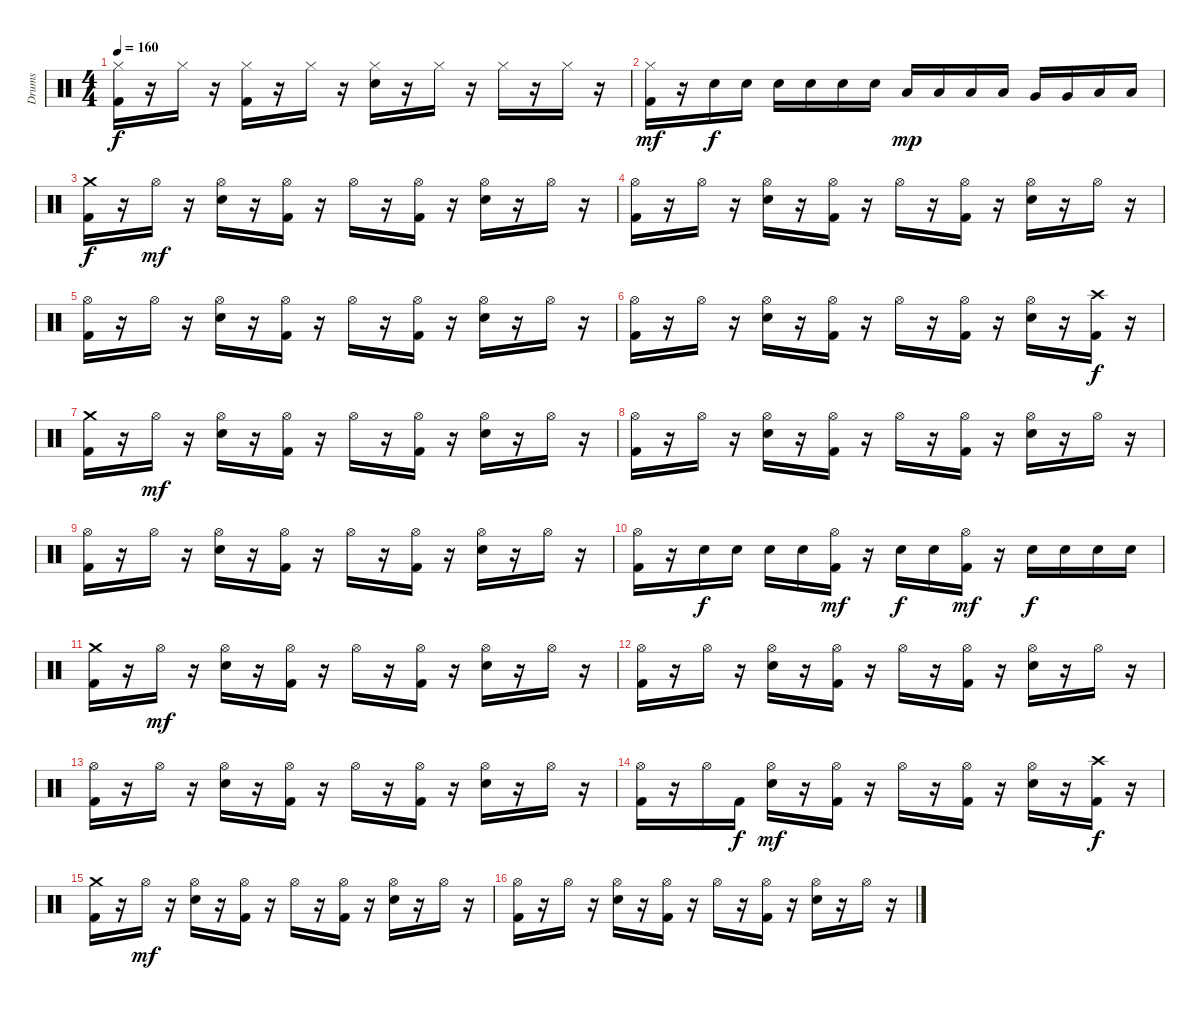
\track ("Drums" "Drums") {instrument percussion}
\staff {score}
\articulation defaults
\ts (4 4)
\tempo 160
\clef neutral
\ks c
("Hi-Hat (closed)" "Kick (hit) 2").16{dy f} r.16 "Hi-Hat (closed)".16 r.16 ("Hi-Hat (closed)" "Kick (hit) 2").16 r.16 "Hi-Hat (closed)".16 r.16 ("Hi-Hat (closed)" "Snare (hit) 2").16 r.16 "Hi-Hat (closed)".16 r.16 "Hi-Hat (closed)".16 r.16 "Hi-Hat (closed)".16 r.16 |
("Hi-Hat (closed)" "Kick (hit) 2").16{dy mf} r.16 "Snare (hit) 2".16{dy f} "Snare (hit) 2".16 "Snare (hit) 2".16 "Snare (hit) 2".16 "Snare (hit) 2".16 "Snare (hit) 2".16 "Low Tom (hit)".16{dy mp} "Low Tom (hit)".16 "Low Tom (hit)".16 "Low Tom (hit)".16 "Very Low Tom (hit)".16 "Very Low Tom (hit)".16 "Low Floor Tom (hit)".16 "Low Floor Tom (hit)".16 |
("Crash medium (hit)" "Kick (hit) 2").16{dy f} r.16 "Hi-Hat (open)".16{dy mf} r.16 ("Hi-Hat (open)" "Snare (hit) 2").16 r.16 ("Hi-Hat (open)" "Kick (hit) 2").16 r.16 "Hi-Hat (open)".16 r.16 ("Hi-Hat (open)" "Kick (hit) 2").16 r.16 ("Hi-Hat (open)" "Snare (hit) 2").16 r.16 "Hi-Hat (open)".16 r.16 |
("Hi-Hat (open)" "Kick (hit) 2").16 r.16 "Hi-Hat (open)".16 r.16 ("Hi-Hat (open)" "Snare (hit) 2").16 r.16 ("Hi-Hat (open)" "Kick (hit) 2").16 r.16 "Hi-Hat (open)".16 r.16 ("Hi-Hat (open)" "Kick (hit) 2").16 r.16 ("Hi-Hat (open)" "Snare (hit) 2").16 r.16 "Hi-Hat (open)".16 r.16 |
("Hi-Hat (open)" "Kick (hit) 2").16 r.16 "Hi-Hat (open)".16 r.16 ("Hi-Hat (open)" "Snare (hit) 2").16 r.16 ("Hi-Hat (open)" "Kick (hit) 2").16 r.16 "Hi-Hat (open)".16 r.16 ("Hi-Hat (open)" "Kick (hit) 2").16 r.16 ("Hi-Hat (open)" "Snare (hit) 2").16 r.16 "Hi-Hat (open)".16 r.16 |
("Hi-Hat (open)" "Kick (hit) 2").16 r.16 "Hi-Hat (open)".16 r.16 ("Hi-Hat (open)" "Snare (hit) 2").16 r.16 ("Hi-Hat (open)" "Kick (hit) 2").16 r.16 "Hi-Hat (open)".16 r.16 ("Hi-Hat (open)" "Kick (hit) 2").16 r.16 ("Hi-Hat (open)" "Snare (hit) 2").16 r.16 ("Crash high (hit)" "Kick (hit) 2").16{dy f} r.16 |
("Crash medium (hit)" "Kick (hit) 2").16 r.16 "Hi-Hat (open)".16{dy mf} r.16 ("Hi-Hat (open)" "Snare (hit) 2").16 r.16 ("Hi-Hat (open)" "Kick (hit) 2").16 r.16 "Hi-Hat (open)".16 r.16 ("Hi-Hat (open)" "Kick (hit) 2").16 r.16 ("Hi-Hat (open)" "Snare (hit) 2").16 r.16 "Hi-Hat (open)".16 r.16 |
("Hi-Hat (open)" "Kick (hit) 2").16 r.16 "Hi-Hat (open)".16 r.16 ("Hi-Hat (open)" "Snare (hit) 2").16 r.16 ("Hi-Hat (open)" "Kick (hit) 2").16 r.16 "Hi-Hat (open)".16 r.16 ("Hi-Hat (open)" "Kick (hit) 2").16 r.16 ("Hi-Hat (open)" "Snare (hit) 2").16 r.16 "Hi-Hat (open)".16 r.16 |
("Hi-Hat (open)" "Kick (hit) 2").16 r.16 "Hi-Hat (open)".16 r.16 ("Hi-Hat (open)" "Snare (hit) 2").16 r.16 ("Hi-Hat (open)" "Kick (hit) 2").16 r.16 "Hi-Hat (open)".16 r.16 ("Hi-Hat (open)" "Kick (hit) 2").16 r.16 ("Hi-Hat (open)" "Snare (hit) 2").16 r.16 "Hi-Hat (open)".16 r.16 |
("Hi-Hat (open)" "Kick (hit) 2").16 r.16 "Snare (hit) 2".16{dy f} "Snare (hit) 2".16 "Snare (hit) 2".16 "Snare (hit) 2".16 ("Hi-Hat (open)" "Kick (hit) 2").16{dy mf} r.16 "Snare (hit) 2".16{dy f} "Snare (hit) 2".16 ("Hi-Hat (open)" "Kick (hit) 2").16{dy mf} r.16 "Snare (hit) 2".16{dy f} "Snare (hit) 2".16 "Snare (hit) 2".16 "Snare (hit) 2".16 |
("Crash medium (hit)" "Kick (hit) 2").16 r.16 "Hi-Hat (open)".16{dy mf} r.16 ("Hi-Hat (open)" "Snare (hit) 2").16 r.16 ("Hi-Hat (open)" "Kick (hit) 2").16 r.16 "Hi-Hat (open)".16 r.16 ("Hi-Hat (open)" "Kick (hit) 2").16 r.16 ("Hi-Hat (open)" "Snare (hit) 2").16 r.16 "Hi-Hat (open)".16 r.16 |
("Hi-Hat (open)" "Kick (hit) 2").16 r.16 "Hi-Hat (open)".16 r.16 ("Hi-Hat (open)" "Snare (hit) 2").16 r.16 ("Hi-Hat (open)" "Kick (hit) 2").16 r.16 "Hi-Hat (open)".16 r.16 ("Hi-Hat (open)" "Kick (hit) 2").16 r.16 ("Hi-Hat (open)" "Snare (hit) 2").16 r.16 "Hi-Hat (open)".16 r.16 |
("Hi-Hat (open)" "Kick (hit) 2").16 r.16 "Hi-Hat (open)".16 r.16 ("Hi-Hat (open)" "Snare (hit) 2").16 r.16 ("Hi-Hat (open)" "Kick (hit) 2").16 r.16 "Hi-Hat (open)".16 r.16 ("Hi-Hat (open)" "Kick (hit) 2").16 r.16 ("Hi-Hat (open)" "Snare (hit) 2").16 r.16 "Hi-Hat (open)".16 r.16 |
("Hi-Hat (open)" "Kick (hit) 2").16 r.16 "Hi-Hat (open)".16 "Kick (hit) 2".16{dy f} ("Hi-Hat (open)" "Snare (hit) 2").16{dy mf} r.16 ("Hi-Hat (open)" "Kick (hit) 2").16 r.16 "Hi-Hat (open)".16 r.16 ("Hi-Hat (open)" "Kick (hit) 2").16 r.16 ("Hi-Hat (open)" "Snare (hit) 2").16 r.16 ("Crash high (hit)" "Kick (hit) 2").16{dy f} r.16 |
("Crash medium (hit)" "Kick (hit) 2").16 r.16 "Hi-Hat (open)".16{dy mf} r.16 ("Hi-Hat (open)" "Snare (hit) 2").16 r.16 ("Hi-Hat (open)" "Kick (hit) 2").16 r.16 "Hi-Hat (open)".16 r.16 ("Hi-Hat (open)" "Kick (hit) 2").16 r.16 ("Hi-Hat (open)" "Snare (hit) 2").16 r.16 "Hi-Hat (open)".16 r.16 |
("Hi-Hat (open)" "Kick (hit) 2").16 r.16 "Hi-Hat (open)".16 r.16 ("Hi-Hat (open)" "Snare (hit) 2").16 r.16 ("Hi-Hat (open)" "Kick (hit) 2").16 r.16 "Hi-Hat (open)".16 r.16 ("Hi-Hat (open)" "Kick (hit) 2").16 r.16 ("Hi-Hat (open)" "Snare (hit) 2").16 r.16 "Hi-Hat (open)".16 r.16
